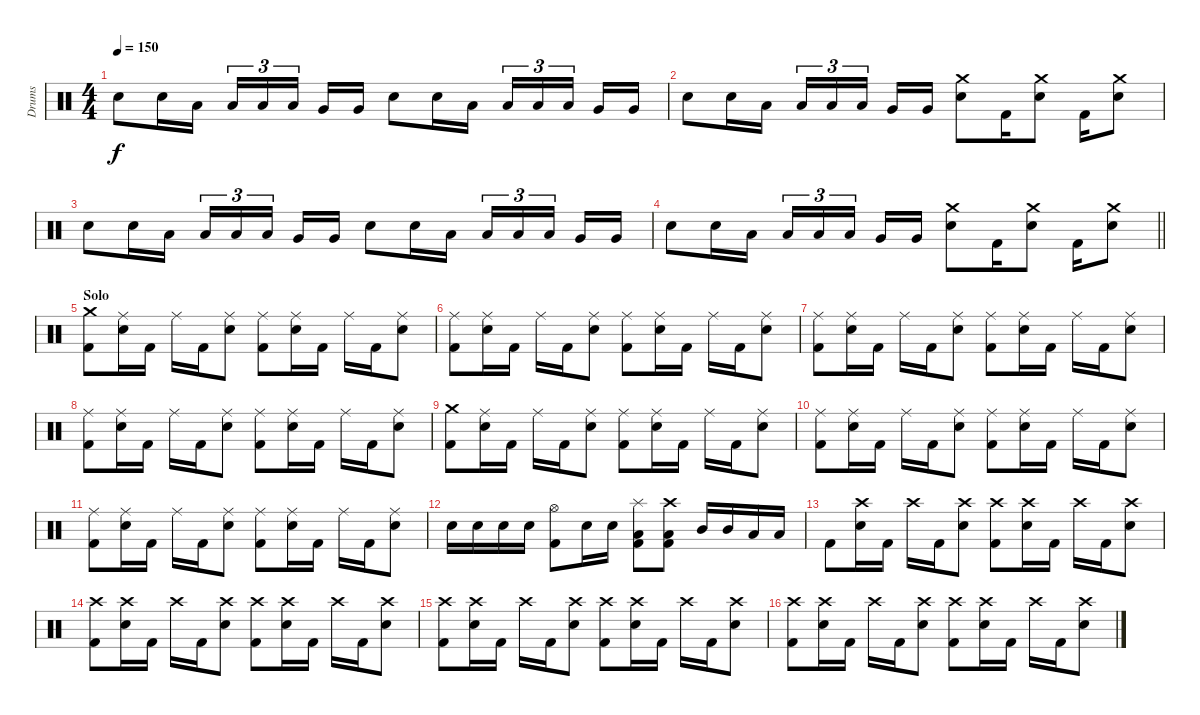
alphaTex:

\track ("Drums" "Drums") {instrument percussion}
\staff {score}
\articulation defaults
\ts (4 4)
\tempo 150
\clef neutral
\ks c "Electric Snare (hit)".8{dy f} "Electric Snare (hit)".16 "Low Tom (hit)".16 "Low Tom (hit)".16{tu (3 2)} "Low Tom (hit)".16{tu (3 2)} "Low Tom (hit)".16{tu (3 2) beam splitsecondary} "Very Low Tom (hit)".16 "Very Low Tom (hit)".16 "Electric Snare (hit)".8 "Electric Snare (hit)".16 "Low Tom (hit)".16 "Low Tom (hit)".16{tu (3 2)} "Low Tom (hit)".16{tu (3 2)} "Low Tom (hit)".16{tu (3 2) beam splitsecondary} "Very Low Tom (hit)".16 "Very Low Tom (hit)".16
|
"Electric Snare (hit)".8 "Electric Snare (hit)".16 "Low Tom (hit)".16 "Low Tom (hit)".16{tu (3 2)} "Low Tom (hit)".16{tu (3 2)} "Low Tom (hit)".16{tu (3 2) beam splitsecondary} "Very Low Tom (hit)".16 "Very Low Tom (hit)".16 ("Crash medium (hit)" "Electric Snare (hit)").8 "Kick (hit) 2".16 ("Crash medium (hit)" "Electric Snare (hit)").8 "Kick (hit) 2".16 ("Crash medium (hit)" "Electric Snare (hit)").8 |
"Electric Snare (hit)".8 "Electric Snare (hit)".16 "Low Tom (hit)".16 "Low Tom (hit)".16{tu (3 2)} "Low Tom (hit)".16{tu (3 2)} "Low Tom (hit)".16{tu (3 2) beam splitsecondary} "Very Low Tom (hit)".16 "Very Low Tom (hit)".16 "Electric Snare (hit)".8 "Electric Snare (hit)".16 "Low Tom (hit)".16 "Low Tom (hit)".16{tu (3 2)} "Low Tom (hit)".16{tu (3 2)} "Low Tom (hit)".16{tu (3 2) beam splitsecondary} "Very Low Tom (hit)".16 "Very Low Tom (hit)".16 |
\barLineRight lightlight "Electric Snare (hit)".8 "Electric Snare (hit)".16 "Low Tom (hit)".16 "Low Tom (hit)".16{tu (3 2)} "Low Tom (hit)".16{tu (3 2)} "Low Tom (hit)".16{tu (3 2) beam splitsecondary} "Very Low Tom (hit)".16 "Very Low Tom (hit)".16
("Crash medium (hit)" "Electric Snare (hit)").8 "Kick (hit) 2".16 ("Crash medium (hit)" "Electric Snare (hit)").8 "Kick (hit) 2".16 ("Crash medium (hit)" "Electric Snare (hit)").8 |
\section ("" "Solo")
("Crash medium (hit)" "Kick (hit) 2").8 ("Ride (middle)" "Electric Snare (hit)").16 "Kick (hit) 2".16 "Ride (middle)".16 "Kick (hit) 2".16 ("Ride (middle)" "Electric Snare (hit)").8 ("Ride (middle)" "Kick (hit) 2").8 ("Ride (middle)" "Electric Snare (hit)").16 "Kick (hit) 2".16 "Ride (middle)".16 "Kick (hit) 2".16 ("Ride (middle)" "Electric Snare (hit)").8 |
("Ride (middle)" "Kick (hit) 2").8 ("Ride (middle)" "Electric Snare (hit)").16 "Kick (hit) 2".16 "Ride (middle)".16 "Kick (hit) 2".16 ("Ride (middle)" "Electric Snare (hit)").8 ("Ride (middle)" "Kick (hit) 2").8 ("Ride (middle)" "Electric Snare (hit)").16 "Kick (hit) 2".16 "Ride (middle)".16 "Kick (hit) 2".16 ("Ride (middle)" "Electric Snare (hit)").8 |
("Ride (middle)" "Kick (hit) 2").8 ("Ride (middle)" "Electric Snare (hit)").16 "Kick (hit) 2".16 "Ride (middle)".16 "Kick (hit) 2".16 ("Ride (middle)" "Electric Snare (hit)").8 ("Ride (middle)" "Kick (hit) 2").8 ("Ride (middle)" "Electric Snare (hit)").16 "Kick (hit) 2".16 "Ride (middle)".16 "Kick (hit) 2".16 ("Ride (middle)" "Electric Snare (hit)").8 |
("Ride (middle)" "Kick (hit) 2").8 ("Ride (middle)" "Electric Snare (hit)").16 "Kick (hit) 2".16 "Ride (middle)".16 "Kick (hit) 2".16 ("Ride (middle)" "Electric Snare (hit)").8 ("Ride (middle)" "Kick (hit) 2").8 ("Ride (middle)" "Electric Snare (hit)").16 "Kick (hit) 2".16 "Ride (middle)".16 "Kick (hit) 2".16 ("Ride (middle)" "Electric Snare (hit)").8 |
("Crash medium (hit)" "Kick (hit) 2").8 ("Ride (middle)" "Electric Snare (hit)").16 "Kick (hit) 2".16 "Ride (middle)".16 "Kick (hit) 2".16 ("Ride (middle)" "Electric Snare (hit)").8 ("Ride (middle)" "Kick (hit) 2").8 ("Ride (middle)" "Electric Snare (hit)").16 "Kick (hit) 2".16 "Ride (middle)".16 "Kick (hit) 2".16 ("Ride (middle)" "Electric Snare (hit)").8 |
("Ride (middle)" "Kick (hit) 2").8 ("Ride (middle)" "Electric Snare (hit)").16 "Kick (hit) 2".16 "Ride (middle)".16 "Kick (hit) 2".16 ("Ride (middle)" "Electric Snare (hit)").8 ("Ride (middle)" "Kick (hit) 2").8 ("Ride (middle)" "Electric Snare (hit)").16 "Kick (hit) 2".16 "Ride (middle)".16 "Kick (hit) 2".16 ("Ride (middle)" "Electric Snare (hit)").8 |
("Ride (middle)" "Kick (hit) 2").8 ("Ride (middle)" "Electric Snare (hit)").16 "Kick (hit) 2".16 "Ride (middle)".16 "Kick (hit) 2".16 ("Ride (middle)" "Electric Snare (hit)").8 ("Ride (middle)" "Kick (hit) 2").8 ("Ride (middle)" "Electric Snare (hit)").16 "Kick (hit) 2".16 "Ride (middle)".16 "Kick (hit) 2".16 ("Ride (middle)" "Electric Snare (hit)").8 |
"Electric Snare (hit)".16 "Electric Snare (hit)".16 "Electric Snare (hit)".16 "Electric Snare (hit)".16 ("Hi-Hat (open)" "Kick (hit) 2").8 "Electric Snare (hit)".16 "Electric Snare (hit)".16 ("Splash (hit)" "Low Tom (hit)" "Kick (hit) 2").8 ("Crash high (hit)" "Low Tom (hit)" "Kick (hit) 2").8 "Mid Tom (hit)".16 "Mid Tom (hit)".16 "Low Tom (hit)".16 "Low Tom (hit)".16 |
"Kick (hit) 2".8 ("Crash high (hit)" "Electric Snare (hit)").16 "Kick (hit) 2".16 "Crash high (hit)".16 "Kick (hit) 2".16 ("Crash high (hit)" "Electric Snare (hit)").8 ("Crash high (hit)" "Kick (hit) 2").8 ("Crash high (hit)" "Electric Snare (hit)").16 "Kick (hit) 2".16 "Crash high (hit)".16 "Kick (hit) 2".16 ("Crash high (hit)" "Electric Snare (hit)").8 |
("Crash high (hit)" "Kick (hit) 2").8 ("Crash high (hit)" "Electric Snare (hit)").16 "Kick (hit) 2".16 "Crash high (hit)".16 "Kick (hit) 2".16 ("Crash high (hit)" "Electric Snare (hit)").8 ("Crash high (hit)" "Kick (hit) 2").8 ("Crash high (hit)" "Electric Snare (hit)").16 "Kick (hit) 2".16 "Crash high (hit)".16 "Kick (hit) 2".16 ("Crash high (hit)" "Electric Snare (hit)").8 |
("Crash high (hit)" "Kick (hit) 2").8 ("Crash high (hit)" "Electric Snare (hit)").16 "Kick (hit) 2".16 "Crash high (hit)".16 "Kick (hit) 2".16 ("Crash high (hit)" "Electric Snare (hit)").8 ("Crash high (hit)" "Kick (hit) 2").8 ("Crash high (hit)" "Electric Snare (hit)").16 "Kick (hit) 2".16 "Crash high (hit)".16 "Kick (hit) 2".16 ("Crash high (hit)" "Electric Snare (hit)").8 |
("Crash high (hit)" "Kick (hit) 2").8 ("Crash high (hit)" "Electric Snare (hit)").16 "Kick (hit) 2".16 "Crash high (hit)".16 "Kick (hit) 2".16 ("Crash high (hit)" "Electric Snare (hit)").8 ("Crash high (hit)" "Kick (hit) 2").8 ("Crash high (hit)" "Electric Snare (hit)").16 "Kick (hit) 2".16 "Crash high (hit)".16 "Kick (hit) 2".16 ("Crash high (hit)" "Electric Snare (hit)").8
